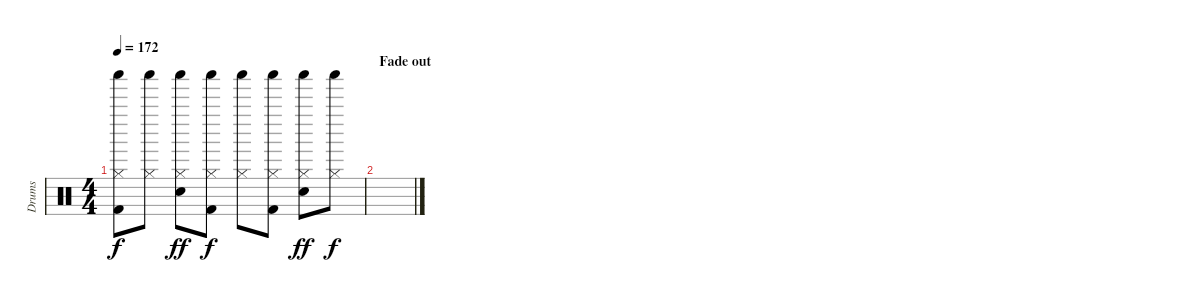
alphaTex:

\track ("Drums" "Drums") {instrument percussion}
\staff {score}
\articulation defaults
\ts (4 4)
\tempo 172
\clef neutral
\ks c
("Hi-Hat (closed)" "Shaker (hit)" "Kick (hit) 2").8{dy f} ("Hi-Hat (closed)" "Shaker (hit)").8 ("Hi-Hat (closed)" "Shaker (hit)" "Electric Snare (hit)").8{dy ff} ("Hi-Hat (closed)" "Shaker (hit)" "Kick (hit) 2").8{dy f} ("Hi-Hat (closed)" "Shaker (hit)").8 ("Hi-Hat (closed)" "Shaker (hit)" "Kick (hit) 2").8 ("Hi-Hat (closed)" "Shaker (hit)" "Electric Snare (hit)").8{dy ff} ("Hi-Hat (closed)" "Shaker (hit)").8{dy f} |
\section ("" "Fade out")
